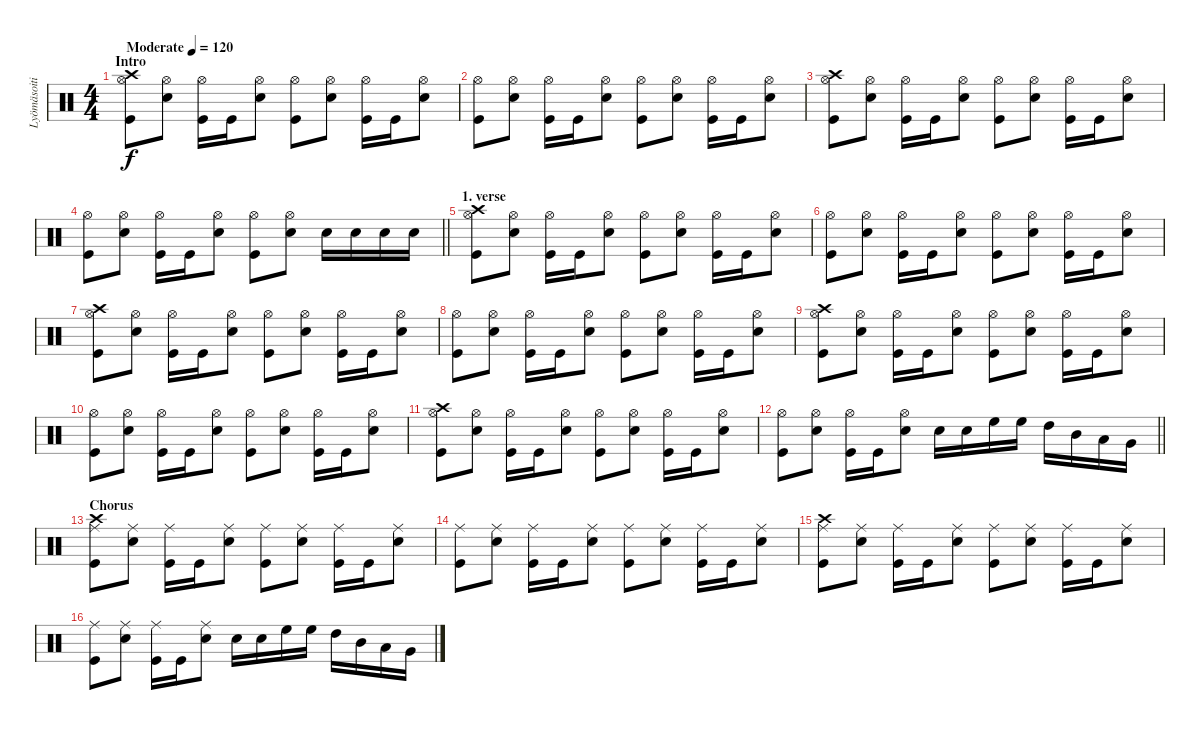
\track ("Lyömäsoitin" "Lyömäsoiti") {instrument percussion}
\staff {score}
\articulation defaults
\ts (4 4)
\section ("" "Intro")
\tempo (120 "Moderate")
\clef neutral
\ks c
("Hi-Hat (open)" "Kick (hit)" "Crash high (hit)").8{dy f} ("Hi-Hat (open)" "Snare (hit) 2").8 ("Hi-Hat (open)" "Kick (hit)").16 "Kick (hit)".16 ("Hi-Hat (open)" "Snare (hit) 2").8 ("Hi-Hat (open)" "Kick (hit)").8 ("Hi-Hat (open)" "Snare (hit) 2").8 ("Hi-Hat (open)" "Kick (hit)").16 "Kick (hit)".16 ("Hi-Hat (open)" "Snare (hit) 2").8 |
("Hi-Hat (open)" "Kick (hit)").8 ("Hi-Hat (open)" "Snare (hit) 2").8 ("Hi-Hat (open)" "Kick (hit)").16 "Kick (hit)".16 ("Hi-Hat (open)" "Snare (hit) 2").8 ("Hi-Hat (open)" "Kick (hit)").8 ("Hi-Hat (open)" "Snare (hit) 2").8 ("Hi-Hat (open)" "Kick (hit)").16 "Kick (hit)".16 ("Hi-Hat (open)" "Snare (hit) 2").8 |
("Hi-Hat (open)" "Kick (hit)" "Crash high (hit)").8 ("Hi-Hat (open)" "Snare (hit) 2").8 ("Hi-Hat (open)" "Kick (hit)").16 "Kick (hit)".16 ("Hi-Hat (open)" "Snare (hit) 2").8 ("Hi-Hat (open)" "Kick (hit)").8 ("Hi-Hat (open)" "Snare (hit) 2").8 ("Hi-Hat (open)" "Kick (hit)").16 "Kick (hit)".16 ("Hi-Hat (open)" "Snare (hit) 2").8 |
\barLineRight lightlight
("Hi-Hat (open)" "Kick (hit)").8 ("Hi-Hat (open)" "Snare (hit) 2").8 ("Hi-Hat (open)" "Kick (hit)").16 "Kick (hit)".16 ("Hi-Hat (open)" "Snare (hit) 2").8 ("Hi-Hat (open)" "Kick (hit)").8 ("Hi-Hat (open)" "Snare (hit) 2").8 "Snare (hit) 2".16 "Snare (hit) 2".16 "Snare (hit) 2".16 "Snare (hit) 2".16 |
\section ("" "1. verse")
("Hi-Hat (open)" "Kick (hit)" "Crash high (hit)").8 ("Hi-Hat (open)" "Snare (hit) 2").8 ("Hi-Hat (open)" "Kick (hit)").16 "Kick (hit)".16 ("Hi-Hat (open)" "Snare (hit) 2").8 ("Hi-Hat (open)" "Kick (hit)").8 ("Hi-Hat (open)" "Snare (hit) 2").8 ("Hi-Hat (open)" "Kick (hit)").16 "Kick (hit)".16 ("Hi-Hat (open)" "Snare (hit) 2").8 |
("Hi-Hat (open)" "Kick (hit)").8 ("Hi-Hat (open)" "Snare (hit) 2").8 ("Hi-Hat (open)" "Kick (hit)").16 "Kick (hit)".16 ("Hi-Hat (open)" "Snare (hit) 2").8 ("Hi-Hat (open)" "Kick (hit)").8 ("Hi-Hat (open)" "Snare (hit) 2").8 ("Hi-Hat (open)" "Kick (hit)").16 "Kick (hit)".16 ("Hi-Hat (open)" "Snare (hit) 2").8 |
("Hi-Hat (open)" "Kick (hit)" "Crash high (hit)").8 ("Hi-Hat (open)" "Snare (hit) 2").8 ("Hi-Hat (open)" "Kick (hit)").16 "Kick (hit)".16 ("Hi-Hat (open)" "Snare (hit) 2").8 ("Hi-Hat (open)" "Kick (hit)").8 ("Hi-Hat (open)" "Snare (hit) 2").8 ("Hi-Hat (open)" "Kick (hit)").16 "Kick (hit)".16 ("Hi-Hat (open)" "Snare (hit) 2").8 |
("Hi-Hat (open)" "Kick (hit)").8 ("Hi-Hat (open)" "Snare (hit) 2").8 ("Hi-Hat (open)" "Kick (hit)").16 "Kick (hit)".16 ("Hi-Hat (open)" "Snare (hit) 2").8 ("Hi-Hat (open)" "Kick (hit)").8 ("Hi-Hat (open)" "Snare (hit) 2").8 ("Hi-Hat (open)" "Kick (hit)").16 "Kick (hit)".16 ("Hi-Hat (open)" "Snare (hit) 2").8 |
("Hi-Hat (open)" "Kick (hit)" "Crash high (hit)").8 ("Hi-Hat (open)" "Snare (hit) 2").8 ("Hi-Hat (open)" "Kick (hit)").16 "Kick (hit)".16 ("Hi-Hat (open)" "Snare (hit) 2").8 ("Hi-Hat (open)" "Kick (hit)").8 ("Hi-Hat (open)" "Snare (hit) 2").8 ("Hi-Hat (open)" "Kick (hit)").16 "Kick (hit)".16 ("Hi-Hat (open)" "Snare (hit) 2").8 |
("Hi-Hat (open)" "Kick (hit)").8 ("Hi-Hat (open)" "Snare (hit) 2").8 ("Hi-Hat (open)" "Kick (hit)").16 "Kick (hit)".16 ("Hi-Hat (open)" "Snare (hit) 2").8 ("Hi-Hat (open)" "Kick (hit)").8 ("Hi-Hat (open)" "Snare (hit) 2").8 ("Hi-Hat (open)" "Kick (hit)").16 "Kick (hit)".16 ("Hi-Hat (open)" "Snare (hit) 2").8 |
("Hi-Hat (open)" "Kick (hit)" "Crash high (hit)").8 ("Hi-Hat (open)" "Snare (hit) 2").8 ("Hi-Hat (open)" "Kick (hit)").16 "Kick (hit)".16 ("Hi-Hat (open)" "Snare (hit) 2").8 ("Hi-Hat (open)" "Kick (hit)").8 ("Hi-Hat (open)" "Snare (hit) 2").8 ("Hi-Hat (open)" "Kick (hit)").16 "Kick (hit)".16 ("Hi-Hat (open)" "Snare (hit) 2").8 |
\barLineRight lightlight
("Hi-Hat (open)" "Kick (hit)").8 ("Hi-Hat (open)" "Snare (hit) 2").8 ("Hi-Hat (open)" "Kick (hit)").16 "Kick (hit)".16 ("Hi-Hat (open)" "Snare (hit) 2").8 "Snare (hit) 2".16 "Snare (hit) 2".16 "High Floor Tom (hit)".16 "High Floor Tom (hit)".16 "High Tom (hit)".16 "Mid Tom (hit)".16 "Low Tom (hit)".16 "Very Low Tom (hit)".16 |
\section ("" "Chorus")
("Ride (middle)" "Kick (hit)" "Crash high (hit)").8 ("Ride (middle)" "Snare (hit) 2").8 ("Ride (middle)" "Kick (hit)").16 "Kick (hit)".16 ("Ride (middle)" "Snare (hit) 2").8 ("Ride (middle)" "Kick (hit)").8 ("Ride (middle)" "Snare (hit) 2").8 ("Ride (middle)" "Kick (hit)").16 "Kick (hit)".16 ("Ride (middle)" "Snare (hit) 2").8 |
("Ride (middle)" "Kick (hit)").8 ("Ride (middle)" "Snare (hit) 2").8 ("Ride (middle)" "Kick (hit)").16 "Kick (hit)".16 ("Ride (middle)" "Snare (hit) 2").8 ("Ride (middle)" "Kick (hit)").8 ("Ride (middle)" "Snare (hit) 2").8 ("Ride (middle)" "Kick (hit)").16 "Kick (hit)".16 ("Ride (middle)" "Snare (hit) 2").8 |
("Ride (middle)" "Kick (hit)" "Crash high (hit)").8 ("Ride (middle)" "Snare (hit) 2").8 ("Ride (middle)" "Kick (hit)").16 "Kick (hit)".16 ("Ride (middle)" "Snare (hit) 2").8 ("Ride (middle)" "Kick (hit)").8 ("Ride (middle)" "Snare (hit) 2").8 ("Ride (middle)" "Kick (hit)").16 "Kick (hit)".16 ("Ride (middle)" "Snare (hit) 2").8 |
("Ride (middle)" "Kick (hit)").8 ("Ride (middle)" "Snare (hit) 2").8 ("Ride (middle)" "Kick (hit)").16 "Kick (hit)".16 ("Ride (middle)" "Snare (hit) 2").8 "Snare (hit) 2".16 "Snare (hit) 2".16 "High Floor Tom (hit)".16 "High Floor Tom (hit)".16 "High Tom (hit)".16 "Mid Tom (hit)".16 "Low Tom (hit)".16 "Very Low Tom (hit)".16
